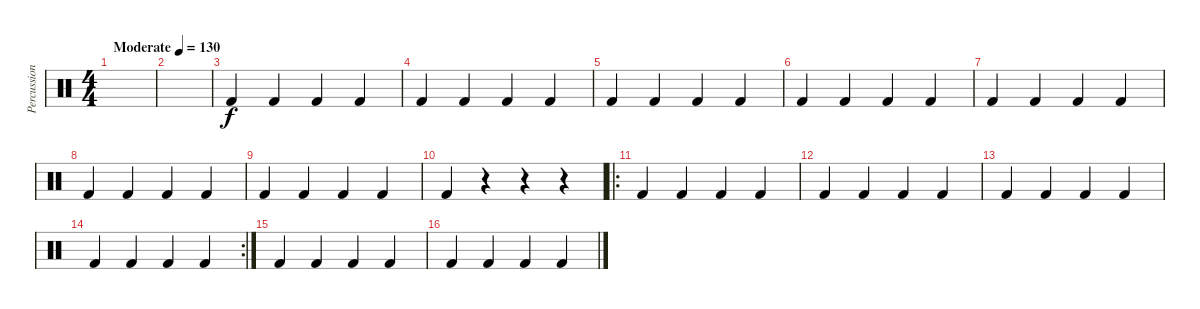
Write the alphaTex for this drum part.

\track ("Percussion" "Percussion") {instrument percussion}
\staff {score}
\articulation defaults
\ts (4 4)
\tempo (130 "Moderate")
\clef neutral
\ks c
|
|
"Kick (hit) 2".4 "Kick (hit) 2".4 "Kick (hit) 2".4 "Kick (hit) 2".4 |
"Kick (hit) 2".4 "Kick (hit) 2".4 "Kick (hit) 2".4 "Kick (hit) 2".4 |
"Kick (hit) 2".4 "Kick (hit) 2".4 "Kick (hit) 2".4 "Kick (hit) 2".4 |
"Kick (hit) 2".4 "Kick (hit) 2".4 "Kick (hit) 2".4 "Kick (hit) 2".4 |
"Kick (hit) 2".4 "Kick (hit) 2".4 "Kick (hit) 2".4 "Kick (hit) 2".4 |
"Kick (hit) 2".4 "Kick (hit) 2".4 "Kick (hit) 2".4 "Kick (hit) 2".4 |
"Kick (hit) 2".4 "Kick (hit) 2".4 "Kick (hit) 2".4 "Kick (hit) 2".4 |
"Kick (hit) 2".4 r.4 r.4 r.4 |
\ro "Kick (hit) 2".4 "Kick (hit) 2".4 "Kick (hit) 2".4 "Kick (hit) 2".4
|
"Kick (hit) 2".4 "Kick (hit) 2".4 "Kick (hit) 2".4 "Kick (hit) 2".4 |
"Kick (hit) 2".4 "Kick (hit) 2".4 "Kick (hit) 2".4 "Kick (hit) 2".4 |
\rc 2 "Kick (hit) 2".4 "Kick (hit) 2".4 "Kick (hit) 2".4 "Kick (hit) 2".4
|
"Kick (hit) 2".4 "Kick (hit) 2".4 "Kick (hit) 2".4 "Kick (hit) 2".4 |
"Kick (hit) 2".4 "Kick (hit) 2".4 "Kick (hit) 2".4 "Kick (hit) 2".4
